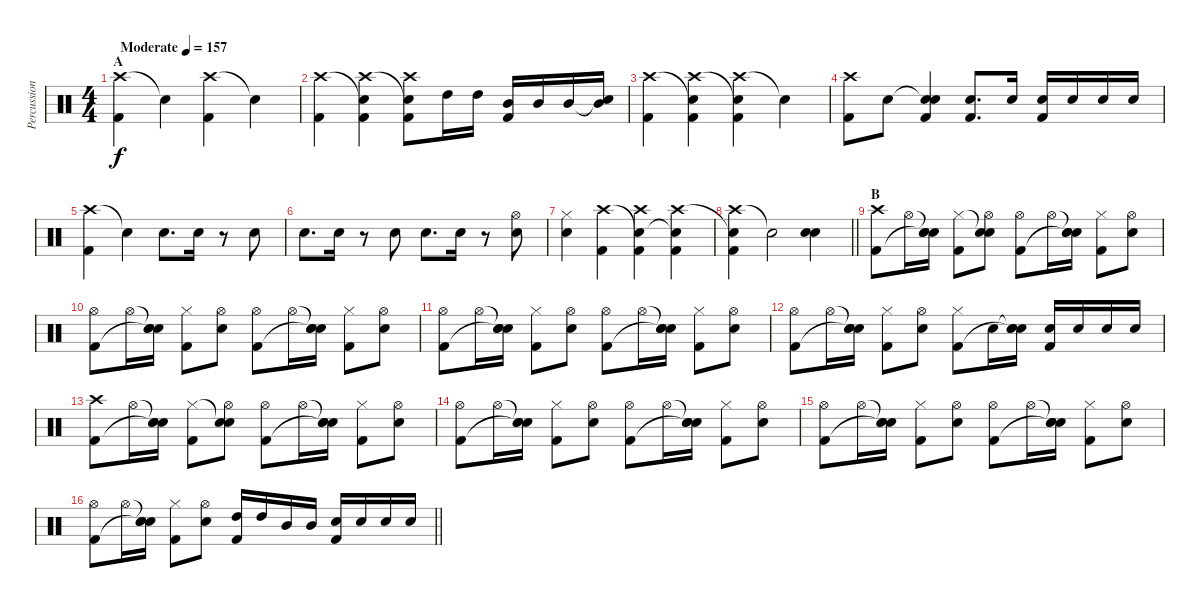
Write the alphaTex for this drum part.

\track ("Percussion" "Percussion") {instrument percussion}
\staff {score}
\articulation defaults
\ts (4 4)
\section ("" "A")
\tempo (157 "Moderate")
\clef neutral
\ks c
("Crash high (hit)" "Kick (hit) 2").4{dy f} "Snare (hit)"{t}.4 ("Crash high (hit)" "Kick (hit) 2").4 "Snare (hit)"{t}.4 |
("Crash high (hit)" "Kick (hit) 2").4 ("Snare (hit)"{t} "Crash high (hit)" "Kick (hit) 2").4 ("Crash high (hit)" "Snare (hit)"{t} "Kick (hit) 2").8 "High Tom (hit)".16 "High Tom (hit)".16 ("Mid Tom (hit)" "Kick (hit) 2").16 "Mid Tom (hit)".16 "Mid Tom (hit)".16 ("Snare (hit)"{t} "Mid Tom (hit)").16 |
("Crash high (hit)" "Kick (hit) 2").4 ("Snare (hit)"{t} "Crash high (hit)" "Kick (hit) 2").4 ("Crash high (hit)" "Snare (hit)"{t} "Kick (hit) 2").4 "Snare (hit)"{t}.4 |
("Crash high (hit)" "Kick (hit) 2").8 "Electric Snare (hit)".8 ("Snare (hit)"{t} "Electric Snare (hit)" "Kick (hit) 2").4 ("Electric Snare (hit)" "Kick (hit) 2").8{d} "Electric Snare (hit)".16 ("Electric Snare (hit)" "Kick (hit) 2").16 "Electric Snare (hit)".16 "Electric Snare (hit)".16 "Electric Snare (hit)".16 |
("Crash high (hit)" "Kick (hit) 2").4 "Snare (hit)"{t}.4 "Electric Snare (hit)".8{d} "Electric Snare (hit)".16 r.8 "Electric Snare (hit)".8 |
"Electric Snare (hit)".8{d} "Electric Snare (hit)".16 r.8 "Electric Snare (hit)".8 "Electric Snare (hit)".8{d} "Electric Snare (hit)".16 r.8 ("Hi-Hat (open)" "Electric Snare (hit)").8 |
("Hi-Hat (closed)" "Electric Snare (hit)").4 ("Crash high (hit)" "Kick (hit) 2").4 ("Snare (hit)"{t} "Crash high (hit)" "Kick (hit) 2").4 ("Snare (hit)"{t} "Crash high (hit)" "Kick (hit) 2").4 |
\barLineRight lightlight
("Crash high (hit)" "Snare (hit)"{t} "Kick (hit) 2").4 "Snare (hit)"{t}.2 ("Electric Snare (hit)" "Electric Snare (hit)").4 |
\section ("" "B")
("Crash high (hit)" "Kick (hit) 2").8 "Hi-Hat (open)".16 ("Snare (hit)"{t} "Snare (hit)"{t} "Electric Snare (hit)").16 ("Hi-Hat (closed)" "Kick (hit) 2").8 ("Snare (hit)"{t} "Hi-Hat (open)" "Electric Snare (hit)").8 ("Hi-Hat (open)" "Kick (hit) 2").8 "Hi-Hat (open)".16 ("Snare (hit)"{t} "Snare (hit)"{t} "Electric Snare (hit)").16 ("Hi-Hat (closed)" "Kick (hit) 2").8 ("Hi-Hat (open)" "Electric Snare (hit)").8 |
("Hi-Hat (open)" "Kick (hit) 2").8 "Hi-Hat (open)".16 ("Snare (hit)"{t} "Snare (hit)"{t} "Electric Snare (hit)").16 ("Hi-Hat (closed)" "Kick (hit) 2").8 ("Hi-Hat (open)" "Electric Snare (hit)").8 ("Hi-Hat (open)" "Kick (hit) 2").8 "Hi-Hat (open)".16 ("Snare (hit)"{t} "Snare (hit)"{t} "Electric Snare (hit)").16 ("Hi-Hat (closed)" "Kick (hit) 2").8 ("Hi-Hat (open)" "Electric Snare (hit)").8 |
("Hi-Hat (open)" "Kick (hit) 2").8 "Hi-Hat (open)".16 ("Snare (hit)"{t} "Snare (hit)"{t} "Electric Snare (hit)").16 ("Hi-Hat (closed)" "Kick (hit) 2").8 ("Hi-Hat (open)" "Electric Snare (hit)").8 ("Hi-Hat (open)" "Kick (hit) 2").8 "Hi-Hat (open)".16 ("Snare (hit)"{t} "Snare (hit)"{t} "Electric Snare (hit)").16 ("Hi-Hat (closed)" "Kick (hit) 2").8 ("Hi-Hat (open)" "Electric Snare (hit)").8 |
("Hi-Hat (open)" "Kick (hit) 2").8 "Hi-Hat (open)".16 ("Snare (hit)"{t} "Snare (hit)"{t} "Electric Snare (hit)").16 ("Hi-Hat (closed)" "Kick (hit) 2").8 ("Hi-Hat (open)" "Electric Snare (hit)").8 ("Hi-Hat (closed)" "Kick (hit) 2").8 "Electric Snare (hit)".16 ("Snare (hit)"{t} "Snare (hit)"{t} "Electric Snare (hit)").16 ("Electric Snare (hit)" "Kick (hit) 2").16 "Electric Snare (hit)".16 "Electric Snare (hit)".16 "Electric Snare (hit)".16 |
("Crash high (hit)" "Kick (hit) 2").8 "Hi-Hat (open)".16 ("Snare (hit)"{t} "Snare (hit)"{t} "Electric Snare (hit)").16 ("Hi-Hat (closed)" "Kick (hit) 2").8 ("Snare (hit)"{t} "Hi-Hat (open)" "Electric Snare (hit)").8 ("Hi-Hat (open)" "Kick (hit) 2").8 "Hi-Hat (open)".16 ("Snare (hit)"{t} "Snare (hit)"{t} "Electric Snare (hit)").16 ("Hi-Hat (closed)" "Kick (hit) 2").8 ("Hi-Hat (open)" "Electric Snare (hit)").8 |
("Hi-Hat (open)" "Kick (hit) 2").8 "Hi-Hat (open)".16 ("Snare (hit)"{t} "Snare (hit)"{t} "Electric Snare (hit)").16 ("Hi-Hat (closed)" "Kick (hit) 2").8 ("Hi-Hat (open)" "Electric Snare (hit)").8 ("Hi-Hat (open)" "Kick (hit) 2").8 "Hi-Hat (open)".16 ("Snare (hit)"{t} "Snare (hit)"{t} "Electric Snare (hit)").16 ("Hi-Hat (closed)" "Kick (hit) 2").8 ("Hi-Hat (open)" "Electric Snare (hit)").8 |
("Hi-Hat (open)" "Kick (hit) 2").8 "Hi-Hat (open)".16 ("Snare (hit)"{t} "Snare (hit)"{t} "Electric Snare (hit)").16 ("Hi-Hat (closed)" "Kick (hit) 2").8 ("Hi-Hat (open)" "Electric Snare (hit)").8 ("Hi-Hat (open)" "Kick (hit) 2").8 "Hi-Hat (open)".16 ("Snare (hit)"{t} "Snare (hit)"{t} "Electric Snare (hit)").16 ("Hi-Hat (closed)" "Kick (hit) 2").8 ("Hi-Hat (open)" "Electric Snare (hit)").8 |
\barLineRight lightlight
("Hi-Hat (open)" "Kick (hit) 2").8 "Hi-Hat (open)".16 ("Snare (hit)"{t} "Snare (hit)"{t} "Electric Snare (hit)").16 ("Hi-Hat (closed)" "Kick (hit) 2").8 ("Hi-Hat (open)" "Electric Snare (hit)").8 ("High Tom (hit)" "Kick (hit) 2").16 "High Tom (hit)".16 "Mid Tom (hit)".16 "Mid Tom (hit)".16 ("Electric Snare (hit)" "Kick (hit) 2").16 "Electric Snare (hit)".16 "Electric Snare (hit)".16 "Electric Snare (hit)".16
